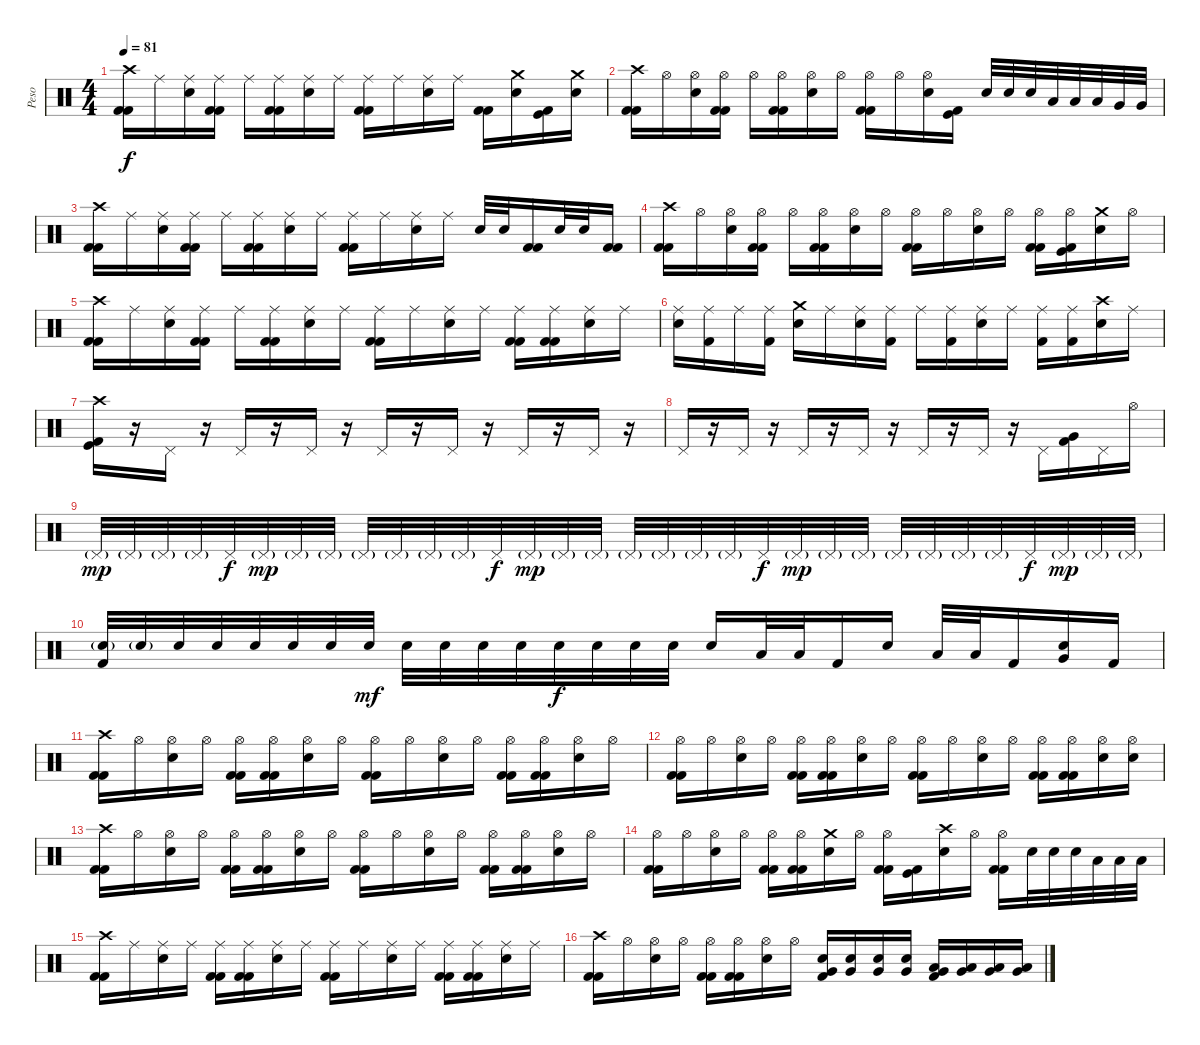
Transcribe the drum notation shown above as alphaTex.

\track ("Peso" "Peso") {instrument percussion}
\staff {score}
\articulation defaults
\ts (4 4)
\tempo 81
\clef neutral
\ks c
("Crash high (hit)" "Kick (hit) 2" "Kick (hit) 2").16{dy f} "Ride (middle)".16 ("Ride (middle)" "Electric Snare (hit)").16 ("Ride (middle)" "Kick (hit) 2" "Kick (hit) 2").16 "Ride (middle)".16 ("Ride (middle)" "Kick (hit) 2" "Kick (hit) 2").16 ("Ride (middle)" "Electric Snare (hit)").16 "Ride (middle)".16 ("Ride (middle)" "Kick (hit) 2" "Kick (hit) 2").16 "Ride (middle)".16 ("Ride (middle)" "Electric Snare (hit)").16 "Ride (middle)".16 ("Kick (hit) 2" "Kick (hit) 2").16 ("Crash medium (hit)" "Electric Snare (hit)").16 ("Kick (hit)" "Kick (hit) 2").16 ("Crash medium (hit)" "Electric Snare (hit)").16 |
("Crash high (hit)" "Kick (hit) 2" "Kick (hit) 2").16 "Hi-Hat (open)".16 ("Hi-Hat (open)" "Electric Snare (hit)").16 ("Hi-Hat (open)" "Kick (hit) 2" "Kick (hit) 2").16 "Hi-Hat (open)".16 ("Hi-Hat (open)" "Kick (hit) 2" "Kick (hit) 2").16 ("Hi-Hat (open)" "Electric Snare (hit)").16 "Hi-Hat (open)".16 ("Hi-Hat (open)" "Kick (hit) 2" "Kick (hit) 2").16 "Hi-Hat (open)".16 ("Hi-Hat (open)" "Electric Snare (hit)").16 ("Kick (hit)" "Kick (hit) 2").16 "Electric Snare (hit)".32 "Electric Snare (hit)".32 "Electric Snare (hit)".32 "Low Tom (hit)".32 "Low Tom (hit)".32 "Low Tom (hit)".32 "Very Low Tom (hit)".32 "Very Low Tom (hit)".32 |
("Crash high (hit)" "Kick (hit) 2" "Kick (hit) 2").16 "Ride (middle)".16 ("Ride (middle)" "Electric Snare (hit)").16 ("Ride (middle)" "Kick (hit) 2" "Kick (hit) 2").16 "Ride (middle)".16 ("Ride (middle)" "Kick (hit) 2" "Kick (hit) 2").16 ("Ride (middle)" "Electric Snare (hit)").16 "Ride (middle)".16 ("Ride (middle)" "Kick (hit) 2" "Kick (hit) 2").16 "Ride (middle)".16 ("Ride (middle)" "Electric Snare (hit)").16 "Ride (middle)".16 "Electric Snare (hit)".32 "Electric Snare (hit)".32 ("Kick (hit) 2" "Kick (hit) 2").16 "Electric Snare (hit)".32 "Electric Snare (hit)".32 ("Kick (hit) 2" "Kick (hit) 2").16 |
("Crash high (hit)" "Kick (hit) 2" "Kick (hit) 2").16 "Hi-Hat (open)".16 ("Hi-Hat (open)" "Electric Snare (hit)").16 ("Hi-Hat (open)" "Kick (hit) 2" "Kick (hit) 2").16 "Hi-Hat (open)".16 ("Hi-Hat (open)" "Kick (hit) 2" "Kick (hit) 2").16 ("Hi-Hat (open)" "Electric Snare (hit)").16 "Hi-Hat (open)".16 ("Hi-Hat (open)" "Kick (hit) 2" "Kick (hit) 2").16 "Hi-Hat (open)".16 ("Hi-Hat (open)" "Electric Snare (hit)").16 "Hi-Hat (open)".16 ("Hi-Hat (open)" "Kick (hit) 2" "Kick (hit) 2").16 ("Hi-Hat (open)" "Kick (hit)" "Kick (hit) 2").16 ("Crash medium (hit)" "Electric Snare (hit)").16 "Hi-Hat (open)".16 |
("Crash high (hit)" "Kick (hit) 2" "Kick (hit) 2").16 "Ride (middle)".16 ("Ride (middle)" "Electric Snare (hit)").16 ("Ride (middle)" "Kick (hit) 2" "Kick (hit) 2").16 "Ride (middle)".16 ("Ride (middle)" "Kick (hit) 2" "Kick (hit) 2").16 ("Ride (middle)" "Electric Snare (hit)").16 "Ride (middle)".16 ("Ride (middle)" "Kick (hit) 2" "Kick (hit) 2").16 "Ride (middle)".16 ("Ride (middle)" "Electric Snare (hit)").16 "Ride (middle)".16 ("Ride (middle)" "Kick (hit) 2" "Kick (hit) 2").16 ("Ride (middle)" "Kick (hit) 2" "Kick (hit) 2").16 ("Ride (middle)" "Electric Snare (hit)").16 "Ride (middle)".16 |
("Ride (middle)" "Electric Snare (hit)").16 ("Ride (middle)" "Kick (hit) 2").16 "Ride (middle)".16 ("Ride (middle)" "Kick (hit) 2").16 ("Crash medium (hit)" "Electric Snare (hit)").16 "Ride (middle)".16 ("Ride (middle)" "Electric Snare (hit)").16 ("Ride (middle)" "Kick (hit) 2").16 "Ride (middle)".16 ("Ride (middle)" "Kick (hit) 2").16 ("Ride (middle)" "Electric Snare (hit)").16 "Ride (middle)".16 ("Ride (middle)" "Kick (hit) 2").16 ("Ride (middle)" "Kick (hit) 2").16 ("Crash high (hit)" "Electric Snare (hit)").16 "Ride (middle)".16 |
("Crash high (hit)" "Kick (hit)" "Kick (hit) 2").16 r.16 "Pedal Hi-Hat (hit)".16 r.16 "Pedal Hi-Hat (hit)".16 r.16 "Pedal Hi-Hat (hit)".16 r.16 "Pedal Hi-Hat (hit)".16 r.16 "Pedal Hi-Hat (hit)".16 r.16 "Pedal Hi-Hat (hit)".16 r.16 "Pedal Hi-Hat (hit)".16 r.16 |
"Pedal Hi-Hat (hit)".16 r.16 "Pedal Hi-Hat (hit)".16 r.16 "Pedal Hi-Hat (hit)".16 r.16 "Pedal Hi-Hat (hit)".16 r.16 "Pedal Hi-Hat (hit)".16 r.16 "Pedal Hi-Hat (hit)".16 r.16 "Pedal Hi-Hat (hit)".16 ("Very Low Tom (hit)" "Kick (hit) 2").16 "Pedal Hi-Hat (hit)".16 "Hi-Hat (open)".16 |
"Pedal Hi-Hat (hit)"{g}.32{dy mp} "Pedal Hi-Hat (hit)"{g}.32 "Pedal Hi-Hat (hit)"{g}.32 "Pedal Hi-Hat (hit)"{g}.32 "Pedal Hi-Hat (hit)".32{dy f} "Pedal Hi-Hat (hit)"{g}.32{dy mp} "Pedal Hi-Hat (hit)"{g}.32 "Pedal Hi-Hat (hit)"{g}.32 "Pedal Hi-Hat (hit)"{g}.32 "Pedal Hi-Hat (hit)"{g}.32 "Pedal Hi-Hat (hit)"{g}.32 "Pedal Hi-Hat (hit)"{g}.32 "Pedal Hi-Hat (hit)".32{dy f} "Pedal Hi-Hat (hit)"{g}.32{dy mp} "Pedal Hi-Hat (hit)"{g}.32 "Pedal Hi-Hat (hit)"{g}.32 "Pedal Hi-Hat (hit)"{g}.32 "Pedal Hi-Hat (hit)"{g}.32 "Pedal Hi-Hat (hit)"{g}.32 "Pedal Hi-Hat (hit)"{g}.32 "Pedal Hi-Hat (hit)".32{dy f} "Pedal Hi-Hat (hit)"{g}.32{dy mp} "Pedal Hi-Hat (hit)"{g}.32 "Pedal Hi-Hat (hit)"{g}.32 "Pedal Hi-Hat (hit)"{g}.32 "Pedal Hi-Hat (hit)"{g}.32 "Pedal Hi-Hat (hit)"{g}.32 "Pedal Hi-Hat (hit)"{g}.32 "Pedal Hi-Hat (hit)".32{dy f} "Pedal Hi-Hat (hit)"{g}.32{dy mp} "Pedal Hi-Hat (hit)"{g}.32 "Pedal Hi-Hat (hit)"{g}.32 |
("Electric Snare (hit)"{g} "Kick (hit) 2").32 "Electric Snare (hit)"{g}.32 "Electric Snare (hit)".32 "Electric Snare (hit)".32 "Electric Snare (hit)".32 "Electric Snare (hit)".32 "Electric Snare (hit)".32 "Electric Snare (hit)".32{dy mf} "Electric Snare (hit)".32 "Electric Snare (hit)".32 "Electric Snare (hit)".32 "Electric Snare (hit)".32 "Electric Snare (hit)".32{dy f} "Electric Snare (hit)".32 "Electric Snare (hit)".32 "Electric Snare (hit)".32 "Electric Snare (hit)".16 "Low Tom (hit)".32 "Low Tom (hit)".32 "Kick (hit) 2".16 "Electric Snare (hit)".16 "Low Tom (hit)".32 "Low Tom (hit)".32 "Kick (hit) 2".16 ("Very Low Tom (hit)" "Electric Snare (hit)").16 "Kick (hit) 2".16 |
("Crash high (hit)" "Kick (hit) 2" "Kick (hit) 2").16 "Hi-Hat (open)".16 ("Hi-Hat (open)" "Electric Snare (hit)").16 "Hi-Hat (open)".16 ("Hi-Hat (open)" "Kick (hit) 2" "Kick (hit) 2").16 ("Hi-Hat (open)" "Kick (hit) 2" "Kick (hit) 2").16 ("Hi-Hat (open)" "Electric Snare (hit)").16 "Hi-Hat (open)".16 ("Hi-Hat (open)" "Kick (hit) 2" "Kick (hit) 2").16 "Hi-Hat (open)".16 ("Hi-Hat (open)" "Electric Snare (hit)").16 "Hi-Hat (open)".16 ("Hi-Hat (open)" "Kick (hit) 2" "Kick (hit) 2").16 ("Hi-Hat (open)" "Kick (hit) 2" "Kick (hit) 2").16 ("Hi-Hat (open)" "Electric Snare (hit)").16 "Hi-Hat (open)".16 |
("Hi-Hat (open)" "Kick (hit) 2" "Kick (hit) 2").16 "Hi-Hat (open)".16 ("Hi-Hat (open)" "Electric Snare (hit)").16 "Hi-Hat (open)".16 ("Hi-Hat (open)" "Kick (hit) 2" "Kick (hit) 2").16 ("Hi-Hat (open)" "Kick (hit) 2" "Kick (hit) 2").16 ("Hi-Hat (open)" "Electric Snare (hit)").16 "Hi-Hat (open)".16 ("Hi-Hat (open)" "Kick (hit) 2" "Kick (hit) 2").16 "Hi-Hat (open)".16 ("Hi-Hat (open)" "Electric Snare (hit)").16 "Hi-Hat (open)".16 ("Hi-Hat (open)" "Kick (hit) 2" "Kick (hit) 2").16 ("Hi-Hat (open)" "Kick (hit) 2" "Kick (hit) 2").16 ("Hi-Hat (open)" "Electric Snare (hit)").16 ("Hi-Hat (open)" "Electric Snare (hit)").16 |
("Crash high (hit)" "Kick (hit) 2" "Kick (hit) 2").16 "Hi-Hat (open)".16 ("Hi-Hat (open)" "Electric Snare (hit)").16 "Hi-Hat (open)".16 ("Hi-Hat (open)" "Kick (hit) 2" "Kick (hit) 2").16 ("Hi-Hat (open)" "Kick (hit) 2" "Kick (hit) 2").16 ("Hi-Hat (open)" "Electric Snare (hit)").16 "Hi-Hat (open)".16 ("Hi-Hat (open)" "Kick (hit) 2" "Kick (hit) 2").16 "Hi-Hat (open)".16 ("Hi-Hat (open)" "Electric Snare (hit)").16 "Hi-Hat (open)".16 ("Hi-Hat (open)" "Kick (hit) 2" "Kick (hit) 2").16 ("Hi-Hat (open)" "Kick (hit) 2" "Kick (hit) 2").16 ("Hi-Hat (open)" "Electric Snare (hit)").16 "Hi-Hat (open)".16 |
("Hi-Hat (open)" "Kick (hit) 2" "Kick (hit) 2").16 "Hi-Hat (open)".16 ("Hi-Hat (open)" "Electric Snare (hit)").16 "Hi-Hat (open)".16 ("Hi-Hat (open)" "Kick (hit) 2" "Kick (hit) 2").16 ("Hi-Hat (open)" "Kick (hit) 2" "Kick (hit) 2").16 ("Crash medium (hit)" "Electric Snare (hit)").16 "Hi-Hat (open)".16 ("Hi-Hat (open)" "Kick (hit) 2" "Kick (hit) 2").16 ("Kick (hit)" "Kick (hit) 2").16 ("Crash high (hit)" "Electric Snare (hit)").16 "Hi-Hat (open)".16 ("Hi-Hat (open)" "Kick (hit) 2" "Kick (hit) 2").16 "Electric Snare (hit)".32 "Electric Snare (hit)".32 "Electric Snare (hit)".32 "Low Tom (hit)".32 "Low Tom (hit)".32 "Low Tom (hit)".32 |
("Crash high (hit)" "Kick (hit) 2" "Kick (hit) 2").16 "Ride (middle)".16 ("Ride (middle)" "Electric Snare (hit)").16 "Ride (middle)".16 ("Ride (middle)" "Kick (hit) 2" "Kick (hit) 2").16 ("Ride (middle)" "Kick (hit) 2" "Kick (hit) 2").16 ("Ride (middle)" "Electric Snare (hit)").16 "Ride (middle)".16 ("Ride (middle)" "Kick (hit) 2" "Kick (hit) 2").16 "Ride (middle)".16 ("Ride (middle)" "Electric Snare (hit)").16 "Ride (middle)".16 ("Ride (middle)" "Kick (hit) 2" "Kick (hit) 2").16 ("Ride (middle)" "Kick (hit) 2" "Kick (hit) 2").16 ("Ride (middle)" "Electric Snare (hit)").16 "Ride (middle)".16 |
("Crash high (hit)" "Kick (hit) 2" "Kick (hit) 2").16 "Hi-Hat (open)".16 ("Hi-Hat (open)" "Electric Snare (hit)").16 "Hi-Hat (open)".16 ("Hi-Hat (open)" "Kick (hit) 2" "Kick (hit) 2").16 ("Hi-Hat (open)" "Kick (hit) 2" "Kick (hit) 2").16 ("Hi-Hat (open)" "Electric Snare (hit)").16 "Hi-Hat (open)".16 ("Electric Snare (hit)" "Very Low Tom (hit)" "Kick (hit) 2").16 ("Electric Snare (hit)" "Very Low Tom (hit)").16 ("Electric Snare (hit)" "Very Low Tom (hit)").16 ("Electric Snare (hit)" "Very Low Tom (hit)").16 ("Low Tom (hit)" "Very Low Tom (hit)" "Kick (hit) 2").16 ("Low Tom (hit)" "Very Low Tom (hit)").16 ("Low Tom (hit)" "Very Low Tom (hit)").16 ("Low Tom (hit)" "Very Low Tom (hit)").16
